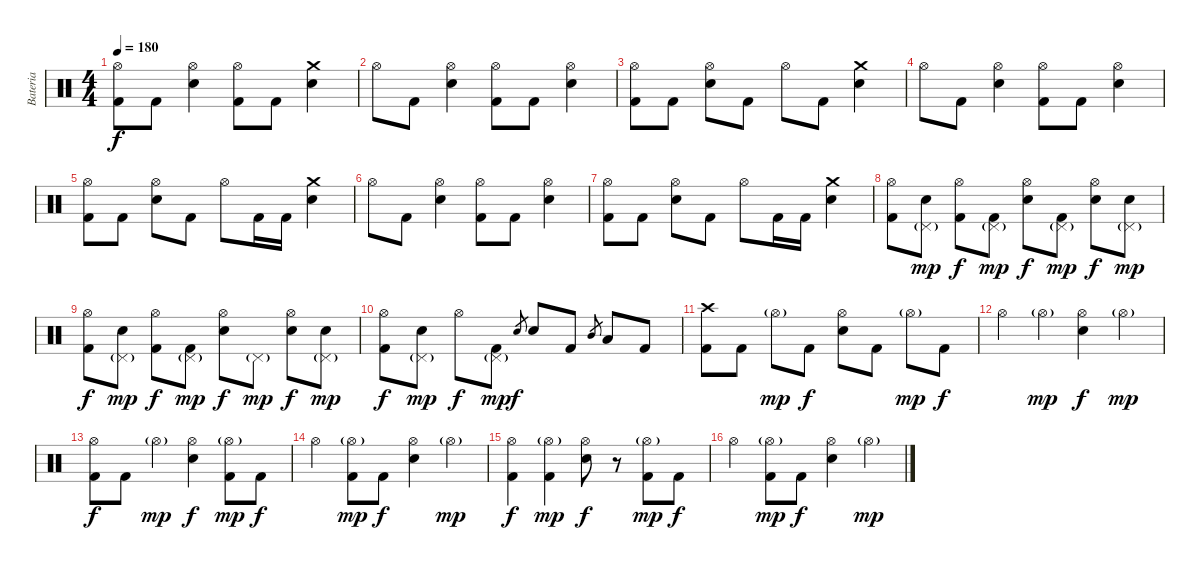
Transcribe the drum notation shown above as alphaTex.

\track ("Bateria" "Bateria") {instrument percussion}
\staff {score}
\articulation defaults
\ts (4 4)
\tempo 180
\clef neutral
\ks c
("Hi-Hat (open)" "Kick (hit) 2").8{dy f} "Kick (hit) 2".8 ("Hi-Hat (open)" "Electric Snare (hit)").4 ("Hi-Hat (open)" "Kick (hit) 2").8 "Kick (hit) 2".8 ("Crash medium (hit)" "Electric Snare (hit)").4 |
"Hi-Hat (open)".8 "Kick (hit) 2".8 ("Hi-Hat (open)" "Electric Snare (hit)").4 ("Hi-Hat (open)" "Kick (hit) 2").8 "Kick (hit) 2".8 ("Hi-Hat (open)" "Electric Snare (hit)").4 |
("Hi-Hat (open)" "Kick (hit) 2").8 "Kick (hit) 2".8 ("Hi-Hat (open)" "Electric Snare (hit)").8 "Kick (hit) 2".8 "Hi-Hat (open)".8 "Kick (hit) 2".8 ("Crash medium (hit)" "Electric Snare (hit)").4 |
"Hi-Hat (open)".8 "Kick (hit) 2".8 ("Hi-Hat (open)" "Electric Snare (hit)").4 ("Hi-Hat (open)" "Kick (hit) 2").8 "Kick (hit) 2".8 ("Hi-Hat (open)" "Electric Snare (hit)").4 |
("Hi-Hat (open)" "Kick (hit) 2").8 "Kick (hit) 2".8 ("Hi-Hat (open)" "Electric Snare (hit)").8 "Kick (hit) 2".8 "Hi-Hat (open)".8 "Kick (hit) 2".16 "Kick (hit) 2".16 ("Crash medium (hit)" "Electric Snare (hit)").4 |
"Hi-Hat (open)".8 "Kick (hit) 2".8 ("Hi-Hat (open)" "Electric Snare (hit)").4 ("Hi-Hat (open)" "Kick (hit) 2").8 "Kick (hit) 2".8 ("Hi-Hat (open)" "Electric Snare (hit)").4 |
("Hi-Hat (open)" "Kick (hit) 2").8 "Kick (hit) 2".8 ("Hi-Hat (open)" "Electric Snare (hit)").8 "Kick (hit) 2".8 "Hi-Hat (open)".8 "Kick (hit) 2".16 "Kick (hit) 2".16 ("Crash medium (hit)" "Electric Snare (hit)").4 |
("Hi-Hat (open)" "Kick (hit) 2").8 ("Pedal Hi-Hat (hit)"{g} "Electric Snare (hit)").8{dy mp} ("Hi-Hat (open)" "Kick (hit) 2").8{dy f} ("Pedal Hi-Hat (hit)"{g} "Kick (hit) 2").8{dy mp} ("Hi-Hat (open)" "Electric Snare (hit)").8{dy f} ("Pedal Hi-Hat (hit)"{g} "Kick (hit) 2").8{dy mp} ("Hi-Hat (open)" "Electric Snare (hit)").8{dy f} ("Pedal Hi-Hat (hit)"{g} "Electric Snare (hit)").8{dy mp} |
("Hi-Hat (open)" "Kick (hit) 2").8{dy f} ("Pedal Hi-Hat (hit)"{g} "Electric Snare (hit)").8{dy mp} ("Hi-Hat (open)" "Kick (hit) 2").8{dy f} ("Pedal Hi-Hat (hit)"{g} "Kick (hit) 2").8{dy mp} ("Hi-Hat (open)" "Electric Snare (hit)").8{dy f} "Pedal Hi-Hat (hit)"{g}.8{dy mp} ("Hi-Hat (open)" "Electric Snare (hit)").8{dy f} ("Pedal Hi-Hat (hit)"{g} "Electric Snare (hit)").8{dy mp} |
("Hi-Hat (open)" "Kick (hit) 2").8{dy f} ("Pedal Hi-Hat (hit)"{g} "Electric Snare (hit)").8{dy mp} "Hi-Hat (open)".8{dy f} ("Pedal Hi-Hat (hit)"{g} "Kick (hit) 2").8{dy mp} "Electric Snare (hit)".8{gr dy f} "Electric Snare (hit)".8 "Kick (hit) 2".8 "Mid Tom (hit)".8{gr} "Low Tom (hit)".8 "Kick (hit) 2".8 |
("Crash high (hit)" "Kick (hit) 2").8 "Kick (hit) 2".8 "Hi-Hat (open)"{g}.8{dy mp} "Kick (hit) 2".8{dy f} ("Hi-Hat (open)" "Electric Snare (hit)").8 "Kick (hit) 2".8 "Hi-Hat (open)"{g}.8{dy mp} "Kick (hit) 2".8{dy f} |
"Hi-Hat (open)".4 "Hi-Hat (open)"{g}.4{dy mp} ("Hi-Hat (open)" "Electric Snare (hit)").4{dy f} "Hi-Hat (open)"{g}.4{dy mp} |
("Hi-Hat (open)" "Kick (hit) 2").8{dy f} "Kick (hit) 2".8 "Hi-Hat (open)"{g}.4{dy mp} ("Hi-Hat (open)" "Electric Snare (hit)").4{dy f} ("Hi-Hat (open)"{g} "Kick (hit) 2").8{dy mp} "Kick (hit) 2".8{dy f} |
"Hi-Hat (open)".4 ("Hi-Hat (open)"{g} "Kick (hit) 2").8{dy mp} "Kick (hit) 2".8{dy f} ("Hi-Hat (open)" "Electric Snare (hit)").4 "Hi-Hat (open)"{g}.4{dy mp} |
("Hi-Hat (open)" "Kick (hit) 2").4{dy f} ("Hi-Hat (open)"{g} "Kick (hit) 2").4{dy mp} ("Hi-Hat (open)" "Electric Snare (hit)").8{dy f} r.8 ("Hi-Hat (open)"{g} "Kick (hit) 2").8{dy mp} "Kick (hit) 2".8{dy f} |
"Hi-Hat (open)".4 ("Hi-Hat (open)"{g} "Kick (hit) 2").8{dy mp} "Kick (hit) 2".8{dy f} ("Hi-Hat (open)" "Electric Snare (hit)").4 "Hi-Hat (open)"{g}.4{dy mp}
